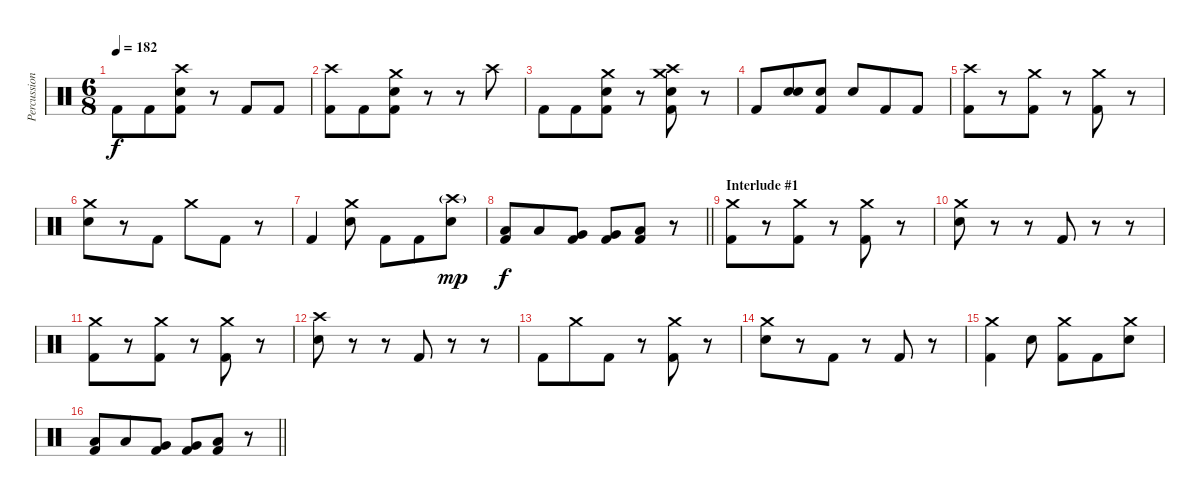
\track ("Percussion" "Percussion") {instrument percussion}
\staff {score}
\articulation defaults
\ts (6 8)
\tempo 182
\clef neutral
\ks c "Kick (hit) 2".8{dy f} "Kick (hit) 2".8
("Kick (hit) 2" "Snare (hit) 2" "Crash high (hit)").8 r.8 "Kick (hit) 2".8 "Kick (hit) 2".8 |
("Kick (hit) 2" "Crash high (hit)").8 "Kick (hit) 2".8 ("Kick (hit) 2" "Snare (hit) 2" "Crash medium (hit)").8 r.8 r.8 "Crash high (hit)".8 |
"Kick (hit) 2".8 "Kick (hit) 2".8 ("Kick (hit) 2" "Snare (hit) 2" "Crash medium (hit)").8 r.8 ("Kick (hit) 2" "Snare (hit) 2" "Crash high (hit)" "Crash medium (hit)").8 r.8 |
"Kick (hit) 2".8 ("Snare (hit) 2" "Snare (hit) 2").8 ("Kick (hit) 2" "Snare (hit) 2").8 "Snare (hit) 2".8 "Kick (hit) 2".8 "Kick (hit) 2".8 |
("Kick (hit) 2" "Crash high (hit)").8 r.8 ("Kick (hit) 2" "Crash medium (hit)").8 r.8 ("Kick (hit) 2" "Crash medium (hit)").8 r.8 |
("Snare (hit) 2" "Crash medium (hit)").8 r.8 "Kick (hit) 2".8 "Crash medium (hit)".8 "Kick (hit) 2".8 r.8 |
"Kick (hit) 2".4 ("Snare (hit) 2" "Crash medium (hit)").8 "Kick (hit) 2".8 "Kick (hit) 2".8 ("Snare (hit) 2" "Crash high (hit)"{g}).8{dy mp} |
\barLineRight lightlight
("Kick (hit) 2" "Low Tom (hit)").8{dy f} "Low Tom (hit)".8 ("Kick (hit) 2" "Very Low Tom (hit)").8 ("Kick (hit) 2" "Very Low Tom (hit)").8 ("Kick (hit) 2" "Low Floor Tom (hit)").8 r.8 |
\section ("" "Interlude #1")
("Kick (hit) 2" "Crash medium (hit)").8 r.8 ("Kick (hit) 2" "Crash medium (hit)").8 r.8 ("Kick (hit) 2" "Crash medium (hit)").8 r.8 |
("Snare (hit) 2" "Crash medium (hit)").8 r.8 r.8 "Kick (hit) 2".8 r.8 r.8 |
("Kick (hit) 2" "Crash medium (hit)").8 r.8 ("Kick (hit) 2" "Crash medium (hit)").8 r.8 ("Kick (hit) 2" "Crash medium (hit)").8 r.8 |
("Snare (hit) 2" "Crash high (hit)").8 r.8 r.8 "Kick (hit) 2".8 r.8 r.8 |
"Kick (hit) 2".8 "Crash medium (hit)".8 "Kick (hit) 2".8 r.8 ("Kick (hit) 2" "Crash medium (hit)").8 r.8 |
("Snare (hit) 2" "Crash medium (hit)").8 r.8 "Kick (hit) 2".8 r.8 "Kick (hit) 2".8 r.8 |
("Kick (hit) 2" "Crash medium (hit)").4 "Snare (hit) 2".8 ("Kick (hit) 2" "Crash medium (hit)").8 "Kick (hit) 2".8 ("Snare (hit) 2" "Crash medium (hit)").8 |
\barLineRight lightlight
("Kick (hit) 2" "Low Tom (hit)").8 "Low Tom (hit)".8 ("Kick (hit) 2" "Very Low Tom (hit)").8 ("Kick (hit) 2" "Very Low Tom (hit)").8 ("Kick (hit) 2" "Low Floor Tom (hit)").8 r.8
